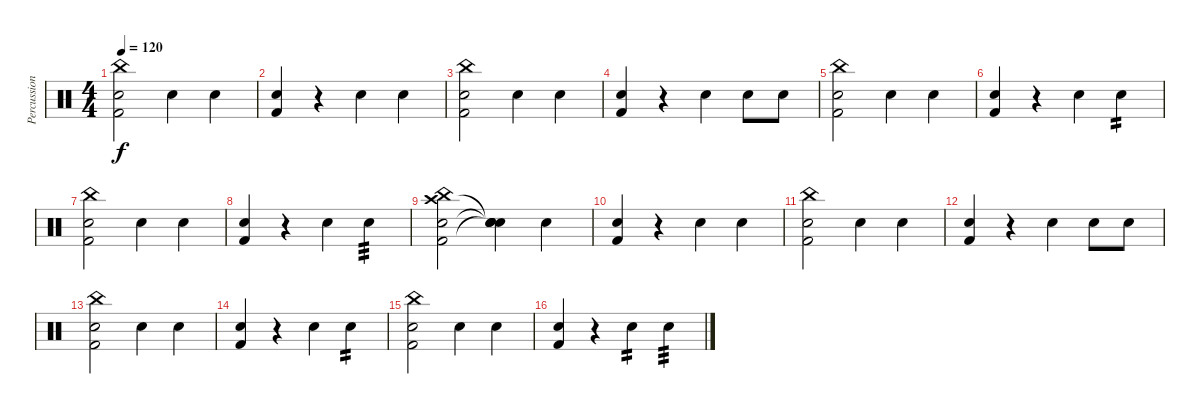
\track ("Percussion" "Percussion") {instrument percussion}
\staff {score}
\articulation defaults
\ts (4 4)
\tempo 120
\clef neutral
\ks c
("China (hit)" "Snare (hit) 2" "Kick (hit) 2").2{dy f} "Snare (hit) 2".4 "Snare (hit) 2".4 |
("Snare (hit) 2" "Kick (hit) 2").4 r.4 "Snare (hit) 2".4 "Snare (hit) 2".4 |
("China (hit)" "Snare (hit) 2" "Kick (hit) 2").2 "Snare (hit) 2".4 "Snare (hit) 2".4 |
("Snare (hit) 2" "Kick (hit) 2").4 r.4 "Snare (hit) 2".4 "Snare (hit) 2".8 "Snare (hit) 2".8 |
("China (hit)" "Snare (hit) 2" "Kick (hit) 2").2 "Snare (hit) 2".4 "Snare (hit) 2".4 |
("Snare (hit) 2" "Kick (hit) 2").4 r.4 "Snare (hit) 2".4 "Snare (hit) 2".4{tp 2} |
("China (hit)" "Snare (hit) 2" "Kick (hit) 2").2 "Snare (hit) 2".4 "Snare (hit) 2".4 |
("Snare (hit) 2" "Kick (hit) 2").4 r.4 "Snare (hit) 2".4 "Snare (hit) 2".4{tp 3} |
("Crash high (hit)" "China (hit)" "Snare (hit) 2" "Kick (hit) 2").2 ("Snare (hit)"{t} "Snare (hit) 2" "Snare (hit)"{t} "Snare (hit)"{t}).4 "Snare (hit) 2".4 |
("Snare (hit) 2" "Kick (hit) 2").4 r.4 "Snare (hit) 2".4 "Snare (hit) 2".4 |
("China (hit)" "Snare (hit) 2" "Kick (hit) 2").2 "Snare (hit) 2".4 "Snare (hit) 2".4 |
("Snare (hit) 2" "Kick (hit) 2").4 r.4 "Snare (hit) 2".4 "Snare (hit) 2".8 "Snare (hit) 2".8 |
("China (hit)" "Snare (hit) 2" "Kick (hit) 2").2 "Snare (hit) 2".4 "Snare (hit) 2".4 |
("Snare (hit) 2" "Kick (hit) 2").4 r.4 "Snare (hit) 2".4 "Snare (hit) 2".4{tp 2} |
("China (hit)" "Snare (hit) 2" "Kick (hit) 2").2 "Snare (hit) 2".4 "Snare (hit) 2".4 |
("Snare (hit) 2" "Kick (hit) 2").4 r.4 "Snare (hit) 2".4{tp 2} "Snare (hit) 2".4{tp 3}
